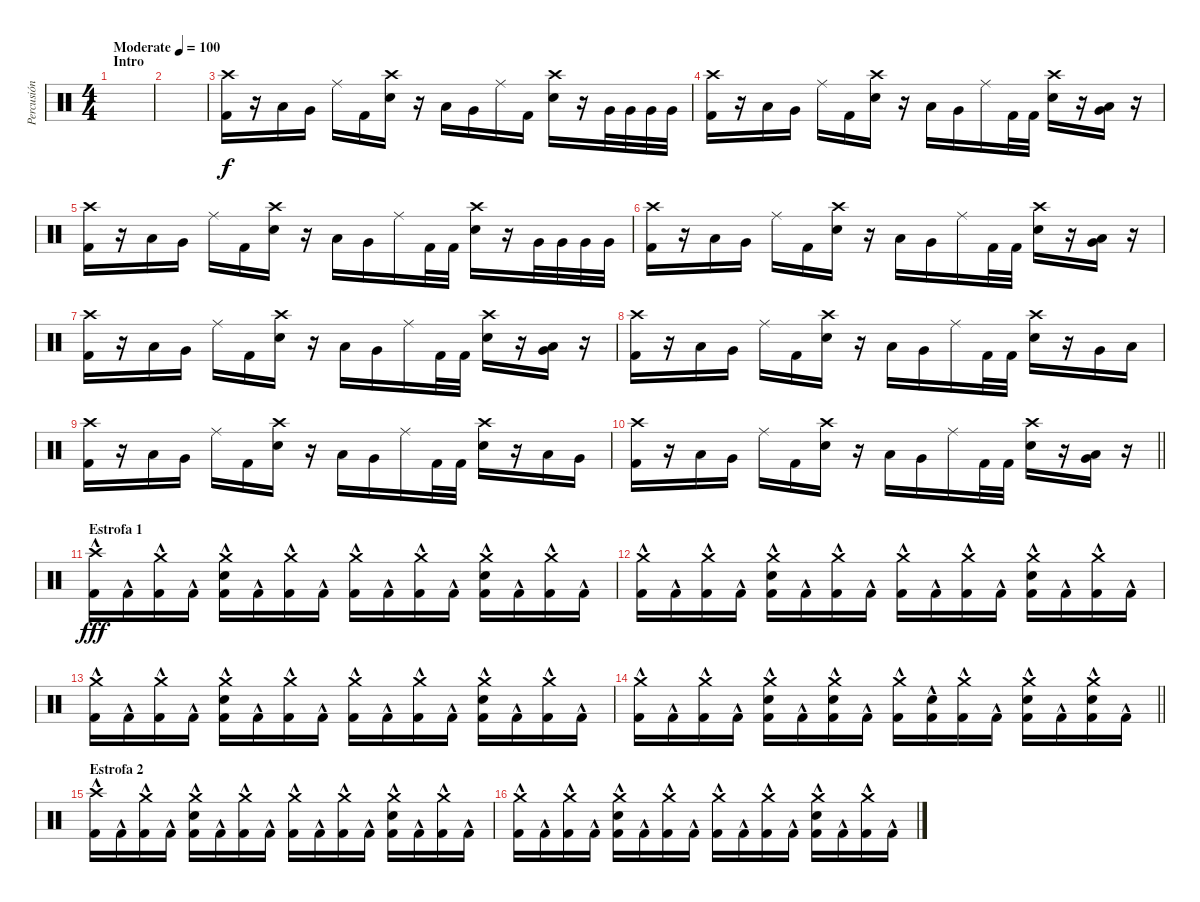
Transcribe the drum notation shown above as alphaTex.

\track ("Percusión" "Percusión") {instrument percussion}
\staff {score}
\articulation defaults
\ts (4 4)
\section ("" "Intro")
\tempo (100 "Moderate")
\clef neutral
\ks c
|
|
("Crash high (hit)" "Kick (hit) 2").16 r.16 "Low Floor Tom (hit)".16 "Very Low Tom (hit)".16 "Ride (middle)".16 "Kick (hit) 2".16 ("Crash high (hit)" "Snare (hit) 2").16 r.16 "Low Floor Tom (hit)".16 "Very Low Tom (hit)".16 "Ride (middle)".16 "Kick (hit) 2".16 ("Crash high (hit)" "Snare (hit) 2").16 r.16 "Very Low Tom (hit)".32 "Very Low Tom (hit)".32 "Very Low Tom (hit)".32 "Very Low Tom (hit)".32 |
("Crash high (hit)" "Kick (hit) 2").16 r.16 "Low Floor Tom (hit)".16 "Very Low Tom (hit)".16 "Ride (middle)".16 "Kick (hit) 2".16 ("Crash high (hit)" "Snare (hit) 2").16 r.16 "Low Floor Tom (hit)".16 "Very Low Tom (hit)".16 "Ride (middle)".16 "Kick (hit) 2".32 "Kick (hit) 2".32 ("Crash high (hit)" "Snare (hit) 2").16 r.16 ("Low Floor Tom (hit)" "Very Low Tom (hit)").16 r.16 |
("Crash high (hit)" "Kick (hit) 2").16 r.16 "Low Floor Tom (hit)".16 "Very Low Tom (hit)".16 "Ride (middle)".16 "Kick (hit) 2".16 ("Crash high (hit)" "Snare (hit) 2").16 r.16 "Low Floor Tom (hit)".16 "Very Low Tom (hit)".16 "Ride (middle)".16 "Kick (hit) 2".32 "Kick (hit) 2".32 ("Crash high (hit)" "Snare (hit) 2").16 r.16 "Very Low Tom (hit)".32 "Very Low Tom (hit)".32 "Very Low Tom (hit)".32 "Very Low Tom (hit)".32 |
("Crash high (hit)" "Kick (hit) 2").16 r.16 "Low Floor Tom (hit)".16 "Very Low Tom (hit)".16 "Ride (middle)".16 "Kick (hit) 2".16 ("Crash high (hit)" "Snare (hit) 2").16 r.16 "Low Floor Tom (hit)".16 "Very Low Tom (hit)".16 "Ride (middle)".16 "Kick (hit) 2".32 "Kick (hit) 2".32 ("Crash high (hit)" "Snare (hit) 2").16 r.16 ("Low Floor Tom (hit)" "Very Low Tom (hit)").16 r.16 |
("Crash high (hit)" "Kick (hit) 2").16 r.16 "Low Floor Tom (hit)".16 "Very Low Tom (hit)".16 "Ride (middle)".16 "Kick (hit) 2".16 ("Crash high (hit)" "Snare (hit) 2").16 r.16 "Low Floor Tom (hit)".16 "Very Low Tom (hit)".16 "Ride (middle)".16 "Kick (hit) 2".32 "Kick (hit) 2".32 ("Crash high (hit)" "Snare (hit) 2").16 r.16 ("Low Floor Tom (hit)" "Very Low Tom (hit)").16 r.16 |
("Crash high (hit)" "Kick (hit) 2").16 r.16 "Low Floor Tom (hit)".16 "Very Low Tom (hit)".16 "Ride (middle)".16 "Kick (hit) 2".16 ("Crash high (hit)" "Snare (hit) 2").16 r.16 "Low Floor Tom (hit)".16 "Very Low Tom (hit)".16 "Ride (middle)".16 "Kick (hit) 2".32 "Kick (hit) 2".32 ("Crash high (hit)" "Snare (hit) 2").16 r.16 "Very Low Tom (hit)".16 "Low Floor Tom (hit)".16 |
("Crash high (hit)" "Kick (hit) 2").16 r.16 "Low Floor Tom (hit)".16 "Very Low Tom (hit)".16 "Ride (middle)".16 "Kick (hit) 2".16 ("Crash high (hit)" "Snare (hit) 2").16 r.16 "Low Floor Tom (hit)".16 "Very Low Tom (hit)".16 "Ride (middle)".16 "Kick (hit) 2".32 "Kick (hit) 2".32 ("Crash high (hit)" "Snare (hit) 2").16 r.16 "Low Floor Tom (hit)".16 "Very Low Tom (hit)".16 |
\barLineRight lightlight
("Crash high (hit)" "Kick (hit) 2").16 r.16 "Low Floor Tom (hit)".16 "Very Low Tom (hit)".16 "Ride (middle)".16 "Kick (hit) 2".16 ("Crash high (hit)" "Snare (hit) 2").16 r.16 "Low Floor Tom (hit)".16 "Very Low Tom (hit)".16 "Ride (middle)".16 "Kick (hit) 2".32 "Kick (hit) 2".32 ("Crash high (hit)" "Snare (hit) 2").16 r.16 ("Low Floor Tom (hit)" "Very Low Tom (hit)").16 r.16 |
\section ("" "Estrofa 1")
("Crash high (hit)" "Kick (hit) 2"{hac}).16{dy fff} "Kick (hit) 2"{hac}.16 ("Crash medium (hit)" "Kick (hit) 2"{hac}).16 "Kick (hit) 2"{hac}.16 ("Crash medium (hit)" "Snare (hit) 2"{hac} "Kick (hit) 2"{hac}).16 "Kick (hit) 2"{hac}.16 ("Crash medium (hit)" "Kick (hit) 2"{hac}).16 "Kick (hit) 2"{hac}.16 ("Crash medium (hit)" "Kick (hit) 2"{hac}).16 "Kick (hit) 2"{hac}.16 ("Crash medium (hit)" "Kick (hit) 2"{hac}).16 "Kick (hit) 2"{hac}.16 ("Crash medium (hit)" "Snare (hit) 2"{hac} "Kick (hit) 2"{hac}).16 "Kick (hit) 2"{hac}.16 ("Crash medium (hit)" "Kick (hit) 2"{hac}).16 "Kick (hit) 2"{hac}.16 |
("Crash medium (hit)" "Kick (hit) 2"{hac}).16 "Kick (hit) 2"{hac}.16 ("Crash medium (hit)" "Kick (hit) 2"{hac}).16 "Kick (hit) 2"{hac}.16 ("Crash medium (hit)" "Snare (hit) 2"{hac} "Kick (hit) 2"{hac}).16 "Kick (hit) 2"{hac}.16 ("Crash medium (hit)" "Kick (hit) 2"{hac}).16 "Kick (hit) 2"{hac}.16 ("Crash medium (hit)" "Kick (hit) 2"{hac}).16 "Kick (hit) 2"{hac}.16 ("Crash medium (hit)" "Kick (hit) 2"{hac}).16 "Kick (hit) 2"{hac}.16 ("Crash medium (hit)" "Snare (hit) 2"{hac} "Kick (hit) 2"{hac}).16 "Kick (hit) 2"{hac}.16 ("Crash medium (hit)" "Kick (hit) 2"{hac}).16 "Kick (hit) 2"{hac}.16 |
("Crash medium (hit)" "Kick (hit) 2"{hac}).16 "Kick (hit) 2"{hac}.16 ("Crash medium (hit)" "Kick (hit) 2"{hac}).16 "Kick (hit) 2"{hac}.16 ("Crash medium (hit)" "Snare (hit) 2"{hac} "Kick (hit) 2"{hac}).16 "Kick (hit) 2"{hac}.16 ("Crash medium (hit)" "Kick (hit) 2"{hac}).16 "Kick (hit) 2"{hac}.16 ("Crash medium (hit)" "Kick (hit) 2"{hac}).16 "Kick (hit) 2"{hac}.16 ("Crash medium (hit)" "Kick (hit) 2"{hac}).16 "Kick (hit) 2"{hac}.16 ("Crash medium (hit)" "Snare (hit) 2"{hac} "Kick (hit) 2"{hac}).16 "Kick (hit) 2"{hac}.16 ("Crash medium (hit)" "Kick (hit) 2"{hac}).16 "Kick (hit) 2"{hac}.16 |
\barLineRight lightlight
("Crash medium (hit)" "Kick (hit) 2"{hac}).16 "Kick (hit) 2"{hac}.16 ("Crash medium (hit)" "Kick (hit) 2"{hac}).16 "Kick (hit) 2"{hac}.16 ("Crash medium (hit)" "Snare (hit) 2"{hac} "Kick (hit) 2"{hac}).16 "Kick (hit) 2"{hac}.16 ("Crash medium (hit)" "Snare (hit) 2"{hac} "Kick (hit) 2"{hac}).16 "Kick (hit) 2"{hac}.16 ("Crash medium (hit)" "Kick (hit) 2"{hac}).16 ("Snare (hit) 2"{hac} "Kick (hit) 2"{hac}).16 ("Crash medium (hit)" "Kick (hit) 2"{hac}).16 "Kick (hit) 2"{hac}.16 ("Crash medium (hit)" "Snare (hit) 2"{hac} "Kick (hit) 2"{hac}).16 "Kick (hit) 2"{hac}.16 ("Crash medium (hit)" "Snare (hit) 2"{hac} "Kick (hit) 2"{hac}).16 "Kick (hit) 2"{hac}.16 |
\section ("" "Estrofa 2")
("Crash high (hit)" "Kick (hit) 2"{hac}).16 "Kick (hit) 2"{hac}.16 ("Crash medium (hit)" "Kick (hit) 2"{hac}).16 "Kick (hit) 2"{hac}.16 ("Crash medium (hit)" "Snare (hit) 2"{hac} "Kick (hit) 2"{hac}).16 "Kick (hit) 2"{hac}.16 ("Crash medium (hit)" "Kick (hit) 2"{hac}).16 "Kick (hit) 2"{hac}.16 ("Crash medium (hit)" "Kick (hit) 2"{hac}).16 "Kick (hit) 2"{hac}.16 ("Crash medium (hit)" "Kick (hit) 2"{hac}).16 "Kick (hit) 2"{hac}.16 ("Crash medium (hit)" "Snare (hit) 2"{hac} "Kick (hit) 2"{hac}).16 "Kick (hit) 2"{hac}.16 ("Crash medium (hit)" "Kick (hit) 2"{hac}).16 "Kick (hit) 2"{hac}.16 |
("Crash medium (hit)" "Kick (hit) 2"{hac}).16 "Kick (hit) 2"{hac}.16 ("Crash medium (hit)" "Kick (hit) 2"{hac}).16 "Kick (hit) 2"{hac}.16 ("Crash medium (hit)" "Snare (hit) 2"{hac} "Kick (hit) 2"{hac}).16 "Kick (hit) 2"{hac}.16 ("Crash medium (hit)" "Kick (hit) 2"{hac}).16 "Kick (hit) 2"{hac}.16 ("Crash medium (hit)" "Kick (hit) 2"{hac}).16 "Kick (hit) 2"{hac}.16 ("Crash medium (hit)" "Kick (hit) 2"{hac}).16 "Kick (hit) 2"{hac}.16 ("Crash medium (hit)" "Snare (hit) 2"{hac} "Kick (hit) 2"{hac}).16 "Kick (hit) 2"{hac}.16 ("Crash medium (hit)" "Kick (hit) 2"{hac}).16 "Kick (hit) 2"{hac}.16
